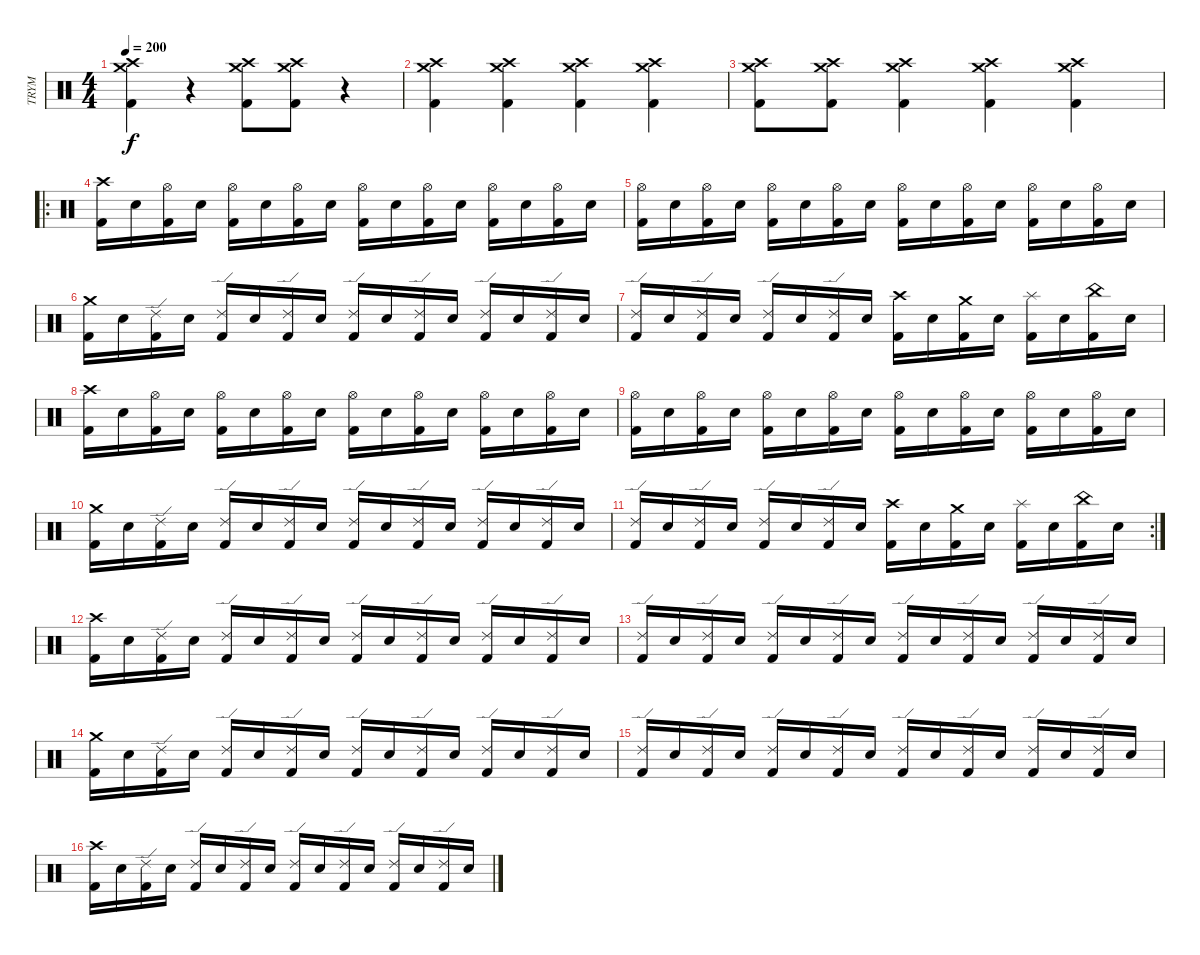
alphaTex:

\track ("TRYM" "TRYM") {instrument percussion}
\staff {score}
\articulation defaults
\ts (4 4)
\tempo 200
\clef neutral
\ks c
("Kick (hit) 2" "Crash medium (hit)" "Crash high (hit)").4{dy f} r.4 ("Kick (hit) 2" "Crash medium (hit)" "Crash high (hit)").8 ("Kick (hit) 2" "Crash medium (hit)" "Crash high (hit)").8 r.4 |
("Kick (hit) 2" "Crash medium (hit)" "Crash high (hit)").4 ("Kick (hit) 2" "Crash medium (hit)" "Crash high (hit)").4 ("Kick (hit) 2" "Crash medium (hit)" "Crash high (hit)").4 ("Kick (hit) 2" "Crash medium (hit)" "Crash high (hit)").4 |
("Kick (hit) 2" "Crash medium (hit)" "Crash high (hit)").8 ("Kick (hit) 2" "Crash medium (hit)" "Crash high (hit)").8 ("Kick (hit) 2" "Crash medium (hit)" "Crash high (hit)").4 ("Kick (hit) 2" "Crash medium (hit)" "Crash high (hit)").4 ("Kick (hit) 2" "Crash medium (hit)" "Crash high (hit)").4 |
\ro
("Kick (hit) 2" "Crash high (hit)").16 "Electric Snare (hit)".16 ("Kick (hit) 2" "Hi-Hat (open)").16 "Electric Snare (hit)".16 ("Kick (hit) 2" "Hi-Hat (open)").16 "Electric Snare (hit)".16 ("Kick (hit) 2" "Hi-Hat (open)").16 "Electric Snare (hit)".16 ("Kick (hit) 2" "Hi-Hat (open)").16 "Electric Snare (hit)".16 ("Kick (hit) 2" "Hi-Hat (open)").16 "Electric Snare (hit)".16 ("Kick (hit) 2" "Hi-Hat (open)").16 "Electric Snare (hit)".16 ("Kick (hit) 2" "Hi-Hat (open)").16 "Electric Snare (hit)".16 |
("Kick (hit) 2" "Hi-Hat (open)").16 "Electric Snare (hit)".16 ("Kick (hit) 2" "Hi-Hat (open)").16 "Electric Snare (hit)".16 ("Kick (hit) 2" "Hi-Hat (open)").16 "Electric Snare (hit)".16 ("Kick (hit) 2" "Hi-Hat (open)").16 "Electric Snare (hit)".16 ("Kick (hit) 2" "Hi-Hat (open)").16 "Electric Snare (hit)".16 ("Kick (hit) 2" "Hi-Hat (open)").16 "Electric Snare (hit)".16 ("Kick (hit) 2" "Hi-Hat (open)").16 "Electric Snare (hit)".16 ("Kick (hit) 2" "Hi-Hat (open)").16 "Electric Snare (hit)".16 |
("Kick (hit) 2" "Crash medium (hit)").16 "Electric Snare (hit)".16 ("Kick (hit) 2" "Ride (edge) 2").16 "Electric Snare (hit)".16 ("Kick (hit) 2" "Ride (edge) 2").16 "Electric Snare (hit)".16 ("Kick (hit) 2" "Ride (edge) 2").16 "Electric Snare (hit)".16 ("Kick (hit) 2" "Ride (edge) 2").16 "Electric Snare (hit)".16 ("Kick (hit) 2" "Ride (edge) 2").16 "Electric Snare (hit)".16 ("Kick (hit) 2" "Ride (edge) 2").16 "Electric Snare (hit)".16 ("Kick (hit) 2" "Ride (edge) 2").16 "Electric Snare (hit)".16 |
("Kick (hit) 2" "Ride (edge) 2").16 "Electric Snare (hit)".16 ("Kick (hit) 2" "Ride (edge) 2").16 "Electric Snare (hit)".16 ("Kick (hit) 2" "Ride (edge) 2").16 "Electric Snare (hit)".16 ("Kick (hit) 2" "Ride (edge) 2").16 "Electric Snare (hit)".16 ("Kick (hit) 2" "Crash high (hit)").16 "Electric Snare (hit)".16 ("Kick (hit) 2" "Crash medium (hit)").16 "Electric Snare (hit)".16 ("Kick (hit) 2" "Splash (hit)").16 "Electric Snare (hit)".16 ("Kick (hit) 2" "China (hit)").16 "Electric Snare (hit)".16 |
("Kick (hit) 2" "Crash high (hit)").16 "Electric Snare (hit)".16 ("Kick (hit) 2" "Hi-Hat (open)").16 "Electric Snare (hit)".16 ("Kick (hit) 2" "Hi-Hat (open)").16 "Electric Snare (hit)".16 ("Kick (hit) 2" "Hi-Hat (open)").16 "Electric Snare (hit)".16 ("Kick (hit) 2" "Hi-Hat (open)").16 "Electric Snare (hit)".16 ("Kick (hit) 2" "Hi-Hat (open)").16 "Electric Snare (hit)".16 ("Kick (hit) 2" "Hi-Hat (open)").16 "Electric Snare (hit)".16 ("Kick (hit) 2" "Hi-Hat (open)").16 "Electric Snare (hit)".16 |
("Kick (hit) 2" "Hi-Hat (open)").16 "Electric Snare (hit)".16 ("Kick (hit) 2" "Hi-Hat (open)").16 "Electric Snare (hit)".16 ("Kick (hit) 2" "Hi-Hat (open)").16 "Electric Snare (hit)".16 ("Kick (hit) 2" "Hi-Hat (open)").16 "Electric Snare (hit)".16 ("Kick (hit) 2" "Hi-Hat (open)").16 "Electric Snare (hit)".16 ("Kick (hit) 2" "Hi-Hat (open)").16 "Electric Snare (hit)".16 ("Kick (hit) 2" "Hi-Hat (open)").16 "Electric Snare (hit)".16 ("Kick (hit) 2" "Hi-Hat (open)").16 "Electric Snare (hit)".16 |
("Kick (hit) 2" "Crash medium (hit)").16 "Electric Snare (hit)".16 ("Kick (hit) 2" "Ride (edge) 2").16 "Electric Snare (hit)".16 ("Kick (hit) 2" "Ride (edge) 2").16 "Electric Snare (hit)".16 ("Kick (hit) 2" "Ride (edge) 2").16 "Electric Snare (hit)".16 ("Kick (hit) 2" "Ride (edge) 2").16 "Electric Snare (hit)".16 ("Kick (hit) 2" "Ride (edge) 2").16 "Electric Snare (hit)".16 ("Kick (hit) 2" "Ride (edge) 2").16 "Electric Snare (hit)".16 ("Kick (hit) 2" "Ride (edge) 2").16 "Electric Snare (hit)".16 |
\rc 2
("Kick (hit) 2" "Ride (edge) 2").16 "Electric Snare (hit)".16 ("Kick (hit) 2" "Ride (edge) 2").16 "Electric Snare (hit)".16 ("Kick (hit) 2" "Ride (edge) 2").16 "Electric Snare (hit)".16 ("Kick (hit) 2" "Ride (edge) 2").16 "Electric Snare (hit)".16 ("Kick (hit) 2" "Crash high (hit)").16 "Electric Snare (hit)".16 ("Kick (hit) 2" "Crash medium (hit)").16 "Electric Snare (hit)".16 ("Kick (hit) 2" "Splash (hit)").16 "Electric Snare (hit)".16 ("Kick (hit) 2" "China (hit)").16 "Electric Snare (hit)".16 |
("Kick (hit) 2" "Crash high (hit)").16 "Electric Snare (hit)".16 ("Kick (hit) 2" "Ride (edge) 2").16 "Electric Snare (hit)".16 ("Kick (hit) 2" "Ride (edge) 2").16 "Electric Snare (hit)".16 ("Kick (hit) 2" "Ride (edge) 2").16 "Electric Snare (hit)".16 ("Kick (hit) 2" "Ride (edge) 2").16 "Electric Snare (hit)".16 ("Kick (hit) 2" "Ride (edge) 2").16 "Electric Snare (hit)".16 ("Kick (hit) 2" "Ride (edge) 2").16 "Electric Snare (hit)".16 ("Kick (hit) 2" "Ride (edge) 2").16 "Electric Snare (hit)".16 |
("Kick (hit) 2" "Ride (edge) 2").16 "Electric Snare (hit)".16 ("Kick (hit) 2" "Ride (edge) 2").16 "Electric Snare (hit)".16 ("Kick (hit) 2" "Ride (edge) 2").16 "Electric Snare (hit)".16 ("Kick (hit) 2" "Ride (edge) 2").16 "Electric Snare (hit)".16 ("Kick (hit) 2" "Ride (edge) 2").16 "Electric Snare (hit)".16 ("Kick (hit) 2" "Ride (edge) 2").16 "Electric Snare (hit)".16 ("Kick (hit) 2" "Ride (edge) 2").16 "Electric Snare (hit)".16 ("Kick (hit) 2" "Ride (edge) 2").16 "Electric Snare (hit)".16 |
("Kick (hit) 2" "Crash medium (hit)").16 "Electric Snare (hit)".16 ("Kick (hit) 2" "Ride (edge) 2").16 "Electric Snare (hit)".16 ("Kick (hit) 2" "Ride (edge) 2").16 "Electric Snare (hit)".16 ("Kick (hit) 2" "Ride (edge) 2").16 "Electric Snare (hit)".16 ("Kick (hit) 2" "Ride (edge) 2").16 "Electric Snare (hit)".16 ("Kick (hit) 2" "Ride (edge) 2").16 "Electric Snare (hit)".16 ("Kick (hit) 2" "Ride (edge) 2").16 "Electric Snare (hit)".16 ("Kick (hit) 2" "Ride (edge) 2").16 "Electric Snare (hit)".16 |
("Kick (hit) 2" "Ride (edge) 2").16 "Electric Snare (hit)".16 ("Kick (hit) 2" "Ride (edge) 2").16 "Electric Snare (hit)".16 ("Kick (hit) 2" "Ride (edge) 2").16 "Electric Snare (hit)".16 ("Kick (hit) 2" "Ride (edge) 2").16 "Electric Snare (hit)".16 ("Kick (hit) 2" "Ride (edge) 2").16 "Electric Snare (hit)".16 ("Kick (hit) 2" "Ride (edge) 2").16 "Electric Snare (hit)".16 ("Kick (hit) 2" "Ride (edge) 2").16 "Electric Snare (hit)".16 ("Kick (hit) 2" "Ride (edge) 2").16 "Electric Snare (hit)".16 |
("Kick (hit) 2" "Crash high (hit)").16 "Electric Snare (hit)".16 ("Kick (hit) 2" "Ride (edge) 2").16 "Electric Snare (hit)".16 ("Kick (hit) 2" "Ride (edge) 2").16 "Electric Snare (hit)".16 ("Kick (hit) 2" "Ride (edge) 2").16 "Electric Snare (hit)".16 ("Kick (hit) 2" "Ride (edge) 2").16 "Electric Snare (hit)".16 ("Kick (hit) 2" "Ride (edge) 2").16 "Electric Snare (hit)".16 ("Kick (hit) 2" "Ride (edge) 2").16 "Electric Snare (hit)".16 ("Kick (hit) 2" "Ride (edge) 2").16 "Electric Snare (hit)".16
